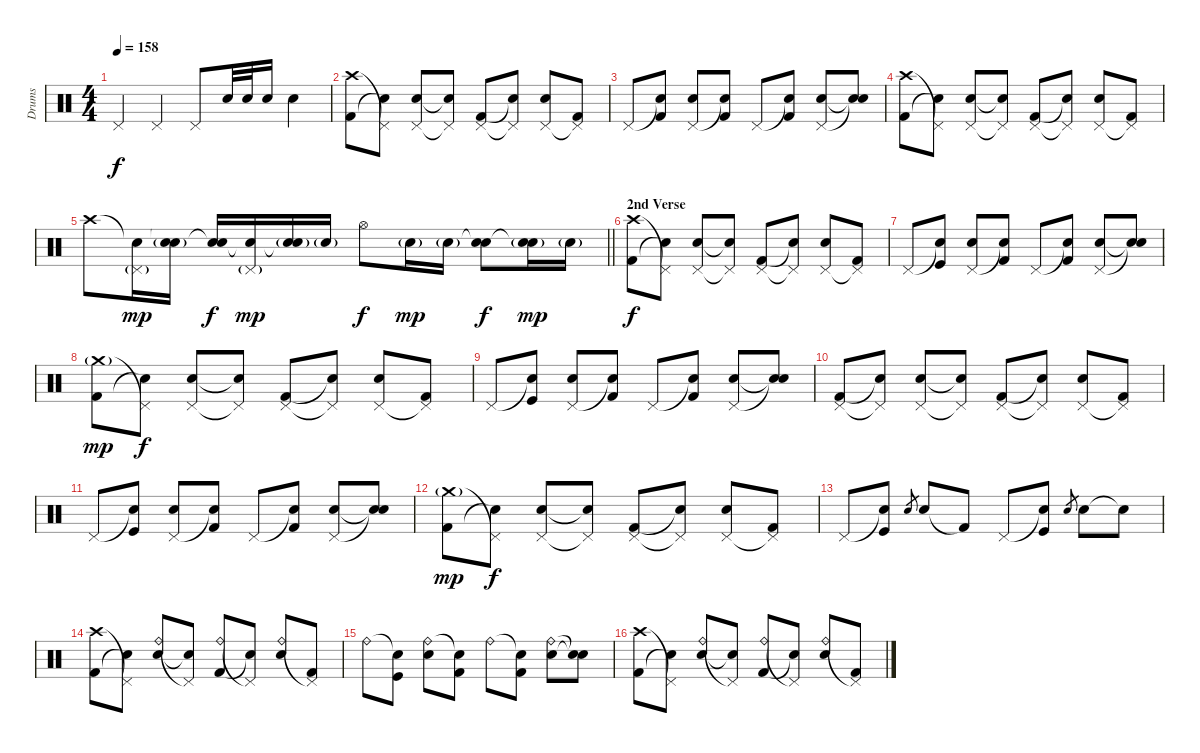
\track ("Drums" "Drums") {instrument percussion}
\staff {score}
\articulation defaults
\ts (4 4)
\tempo 158
\clef neutral
\ks c "Pedal Hi-Hat (hit)".4{dy f} "Pedal Hi-Hat (hit)".4 "Pedal Hi-Hat (hit)".8 "Electric Snare (hit)".32 "Electric Snare (hit)".32 "Electric Snare (hit)".16 "Electric Snare (hit)".4
|
("Crash high (hit)" "Kick (hit) 2").8 ("Pedal Hi-Hat (hit)"{t} "Electric Snare (hit)"{t}).8 ("Pedal Hi-Hat (hit)" "Electric Snare (hit)").8 ("Pedal Hi-Hat (hit)"{t} "Snare (hit)"{t}).8 ("Pedal Hi-Hat (hit)" "Kick (hit) 2").8 ("Pedal Hi-Hat (hit)"{t} "Electric Snare (hit)"{t}).8 ("Pedal Hi-Hat (hit)" "Electric Snare (hit)").8 ("Pedal Hi-Hat (hit)"{t} "Kick (hit) 2").8 |
"Pedal Hi-Hat (hit)".8 ("Snare (hit)"{t} "Kick (hit) 2").8 ("Pedal Hi-Hat (hit)" "Electric Snare (hit)").8 ("Snare (hit)"{t} "Kick (hit) 2").8 "Pedal Hi-Hat (hit)".8 ("Snare (hit)"{t} "Kick (hit) 2").8 ("Pedal Hi-Hat (hit)" "Electric Snare (hit)").8 ("Snare (hit)"{t} "Snare (hit)"{t}).8 |
("Crash high (hit)" "Kick (hit) 2").8 ("Pedal Hi-Hat (hit)"{t} "Electric Snare (hit)"{t}).8 ("Pedal Hi-Hat (hit)" "Electric Snare (hit)").8 ("Pedal Hi-Hat (hit)"{t} "Snare (hit)"{t}).8 ("Pedal Hi-Hat (hit)" "Kick (hit) 2").8 ("Pedal Hi-Hat (hit)"{t} "Electric Snare (hit)"{t}).8 ("Pedal Hi-Hat (hit)" "Electric Snare (hit)").8 ("Pedal Hi-Hat (hit)"{t} "Kick (hit) 2").8 |
\barLineRight lightlight "Crash high (hit)".8
("Snare (hit)"{t} "Pedal Hi-Hat (hit)"{g}).16{dy mp} ("Snare (hit)"{t} "Electric Snare (hit)"{g}).16 ("Snare (hit)"{t} "Electric Snare (hit)").16{dy f} ("Snare (hit)"{t} "Pedal Hi-Hat (hit)"{g}).16{dy mp} ("Snare (hit)"{t} "Electric Snare (hit)"{g}).16 "Electric Snare (hit)"{g}.16 "Hi-Hat (open)".8{dy f} "Electric Snare (hit)"{g}.16{dy mp} "Electric Snare (hit)"{g}.16 ("Snare (hit)"{t} "Electric Snare (hit)").8{dy f} ("Snare (hit)"{t} "Electric Snare (hit)"{g}).16{dy mp} "Electric Snare (hit)"{g}.16 |
\section ("" "2nd Verse")
("Crash high (hit)" "Kick (hit) 2").8{dy f} ("Pedal Hi-Hat (hit)"{t} "Electric Snare (hit)"{t}).8 ("Pedal Hi-Hat (hit)" "Electric Snare (hit)").8 ("Pedal Hi-Hat (hit)"{t} "Snare (hit)"{t}).8 ("Pedal Hi-Hat (hit)" "Kick (hit) 2").8 ("Pedal Hi-Hat (hit)"{t} "Electric Snare (hit)"{t}).8 ("Pedal Hi-Hat (hit)" "Electric Snare (hit)").8 ("Pedal Hi-Hat (hit)"{t} "Kick (hit) 2").8 |
"Pedal Hi-Hat (hit)".8 ("Snare (hit)"{t} "Kick (hit)").8 ("Pedal Hi-Hat (hit)" "Electric Snare (hit)").8 ("Snare (hit)"{t} "Kick (hit) 2").8 "Pedal Hi-Hat (hit)".8 ("Snare (hit)"{t} "Kick (hit) 2").8 ("Pedal Hi-Hat (hit)" "Electric Snare (hit)").8 ("Snare (hit)"{t} "Snare (hit)"{t}).8 |
("Crash medium (hit)"{g} "Kick (hit) 2").8{dy mp} ("Pedal Hi-Hat (hit)"{t} "Electric Snare (hit)"{t}).8{dy f} ("Pedal Hi-Hat (hit)" "Electric Snare (hit)").8 ("Pedal Hi-Hat (hit)"{t} "Snare (hit)"{t}).8 ("Pedal Hi-Hat (hit)" "Kick (hit) 2").8 ("Pedal Hi-Hat (hit)"{t} "Electric Snare (hit)"{t}).8 ("Pedal Hi-Hat (hit)" "Electric Snare (hit)").8 ("Pedal Hi-Hat (hit)"{t} "Kick (hit) 2").8 |
"Pedal Hi-Hat (hit)".8 ("Snare (hit)"{t} "Kick (hit)").8 ("Pedal Hi-Hat (hit)" "Electric Snare (hit)").8 ("Snare (hit)"{t} "Kick (hit) 2").8 "Pedal Hi-Hat (hit)".8 ("Snare (hit)"{t} "Kick (hit) 2").8 ("Pedal Hi-Hat (hit)" "Electric Snare (hit)").8 ("Snare (hit)"{t} "Snare (hit)"{t}).8 |
("Pedal Hi-Hat (hit)" "Kick (hit) 2").8 ("Pedal Hi-Hat (hit)"{t} "Electric Snare (hit)"{t}).8 ("Pedal Hi-Hat (hit)" "Electric Snare (hit)").8 ("Pedal Hi-Hat (hit)"{t} "Snare (hit)"{t}).8 ("Pedal Hi-Hat (hit)" "Kick (hit) 2").8 ("Pedal Hi-Hat (hit)"{t} "Electric Snare (hit)"{t}).8 ("Pedal Hi-Hat (hit)" "Electric Snare (hit)").8 ("Pedal Hi-Hat (hit)"{t} "Kick (hit) 2").8 |
"Pedal Hi-Hat (hit)".8 ("Snare (hit)"{t} "Kick (hit)").8 ("Pedal Hi-Hat (hit)" "Electric Snare (hit)").8 ("Snare (hit)"{t} "Kick (hit) 2").8 "Pedal Hi-Hat (hit)".8 ("Snare (hit)"{t} "Kick (hit) 2").8 ("Pedal Hi-Hat (hit)" "Electric Snare (hit)").8 ("Snare (hit)"{t} "Snare (hit)"{t}).8 |
("Crash medium (hit)"{g} "Kick (hit) 2").8{dy mp} ("Pedal Hi-Hat (hit)"{t} "Electric Snare (hit)"{t}).8{dy f} ("Pedal Hi-Hat (hit)" "Electric Snare (hit)").8 ("Pedal Hi-Hat (hit)"{t} "Snare (hit)"{t}).8 ("Pedal Hi-Hat (hit)" "Kick (hit) 2").8 ("Pedal Hi-Hat (hit)"{t} "Electric Snare (hit)"{t}).8 ("Pedal Hi-Hat (hit)" "Electric Snare (hit)").8 ("Pedal Hi-Hat (hit)"{t} "Kick (hit) 2").8 |
"Pedal Hi-Hat (hit)".8 ("Snare (hit)"{t} "Kick (hit)").8 "Electric Snare (hit)".8{gr} "Electric Snare (hit)".8 "Kick (hit) 2"{t}.8 "Pedal Hi-Hat (hit)".8 ("Snare (hit)"{t} "Kick (hit)").8 "Electric Snare (hit)".8{gr} "Electric Snare (hit)".8 "Snare (hit)"{t}.8 |
\section ("" "")
("Crash high (hit)" "Kick (hit) 2").8 ("Pedal Hi-Hat (hit)"{t} "Electric Snare (hit)"{t}).8 ("Ride (bell)" "Electric Snare (hit)").8 ("Pedal Hi-Hat (hit)"{t} "Snare (hit)"{t}).8 ("Ride (bell)" "Kick (hit) 2").8 ("Pedal Hi-Hat (hit)"{t} "Electric Snare (hit)"{t}).8 ("Ride (bell)" "Electric Snare (hit)").8 ("Pedal Hi-Hat (hit)"{t} "Kick (hit) 2").8 |
"Ride (bell)".8 ("Snare (hit)"{t} "Kick (hit)").8 ("Ride (bell)" "Electric Snare (hit)").8 ("Snare (hit)"{t} "Kick (hit) 2").8 "Ride (bell)".8 ("Snare (hit)"{t} "Kick (hit) 2").8 ("Ride (bell)" "Electric Snare (hit)").8 ("Snare (hit)"{t} "Snare (hit)"{t}).8 |
("Crash high (hit)" "Kick (hit) 2").8 ("Pedal Hi-Hat (hit)"{t} "Electric Snare (hit)"{t}).8 ("Ride (bell)" "Electric Snare (hit)").8 ("Pedal Hi-Hat (hit)"{t} "Snare (hit)"{t}).8 ("Ride (bell)" "Kick (hit) 2").8 ("Pedal Hi-Hat (hit)"{t} "Electric Snare (hit)"{t}).8 ("Ride (bell)" "Electric Snare (hit)").8 ("Pedal Hi-Hat (hit)"{t} "Kick (hit) 2").8
